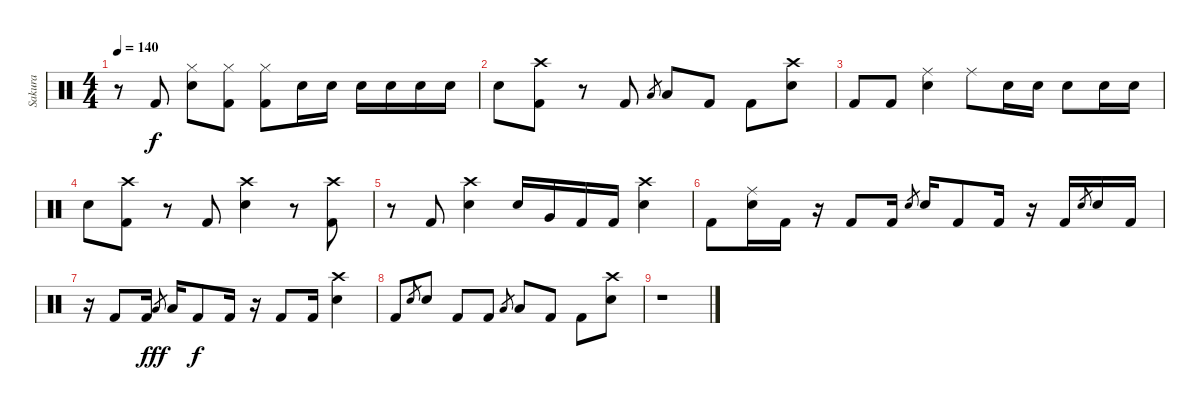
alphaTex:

\track ("Sakura" "Sakura") {instrument percussion}
\staff {score}
\articulation defaults
\ts (4 4)
\tempo 140
\clef neutral
\ks c
r.8{dy f} "Kick (hit) 2".8 ("Hi-Hat (closed)" "Electric Snare (hit)").8 ("Hi-Hat (closed)" "Kick (hit) 2").8 ("Hi-Hat (closed)" "Kick (hit) 2").8 "Electric Snare (hit)".16 "Electric Snare (hit)".16 "Electric Snare (hit)".16 "Electric Snare (hit)".16 "Electric Snare (hit)".16 "Electric Snare (hit)".16 |
"Electric Snare (hit)".8 ("Crash high (hit)" "Kick (hit) 2").8 r.8 "Kick (hit) 2".8 "Low Tom (hit)".8{gr} "Low Tom (hit)".8 "Kick (hit) 2".8 "Kick (hit) 2".8 ("Crash high (hit)" "Electric Snare (hit)").8 |
"Kick (hit) 2".8 "Kick (hit) 2".8 ("Ride (middle)" "Electric Snare (hit)").4 "Ride (middle)".8 "Electric Snare (hit)".16 "Electric Snare (hit)".16 "Electric Snare (hit)".8 "Electric Snare (hit)".16 "Electric Snare (hit)".16 |
"Electric Snare (hit)".8 ("Crash high (hit)" "Kick (hit) 2").8 r.8 "Kick (hit) 2".8 ("Crash high (hit)" "Electric Snare (hit)").4 r.8 ("Crash high (hit)" "Kick (hit) 2").8 |
r.8 "Kick (hit) 2".8 ("Crash high (hit)" "Electric Snare (hit)").4 "Electric Snare (hit)".16 "Very Low Tom (hit)".16 "Kick (hit) 2".16 "Kick (hit) 2".16 ("Crash high (hit)" "Electric Snare (hit)").4 |
"Kick (hit) 2".8 ("Ride (middle)" "Electric Snare (hit)").16 "Kick (hit) 2".16 r.16 "Kick (hit) 2".8 "Kick (hit) 2".16 "Electric Snare (hit)".8{gr} "Electric Snare (hit)".16 "Kick (hit) 2".8 "Kick (hit) 2".16 r.16 "Kick (hit) 2".16 "Electric Snare (hit)".8{gr} "Electric Snare (hit)".16 "Kick (hit) 2".16 |
r.16 "Kick (hit) 2".8 "Kick (hit) 2".16 "Low Tom (hit)".8{gr dy fff} "Low Tom (hit)".16 "Kick (hit) 2".8{dy f} "Kick (hit) 2".16 r.16 "Kick (hit) 2".8 "Kick (hit) 2".16 ("Crash high (hit)" "Electric Snare (hit)").4 |
"Kick (hit) 2".8 "Electric Snare (hit)".8{gr} "Electric Snare (hit)".8 "Kick (hit) 2".8 "Kick (hit) 2".8 "Low Tom (hit)".8{gr} "Low Tom (hit)".8 "Kick (hit) 2".8 "Kick (hit) 2".8 ("Crash high (hit)" "Electric Snare (hit)").8 |
r.1
